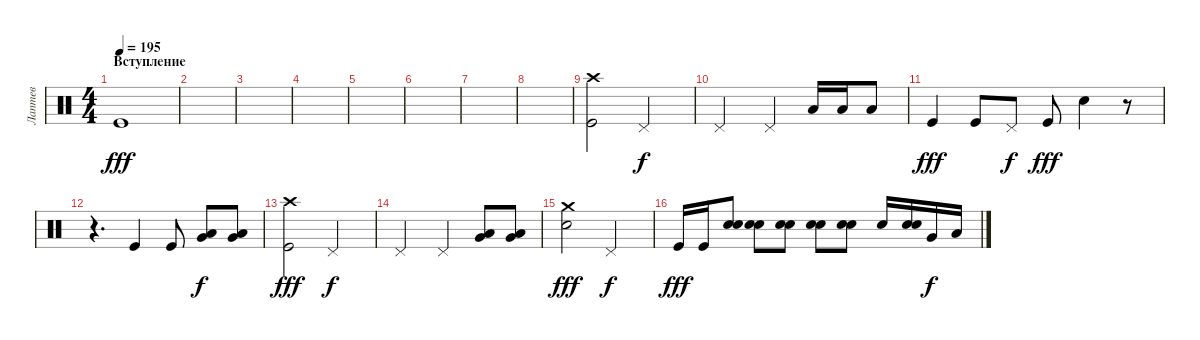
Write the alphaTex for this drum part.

\track ("Лаптев" "Лаптев") {instrument percussion}
\staff {score}
\articulation defaults
\ts (4 4)
\section ("" "Вступление")
\tempo 195
\clef neutral
\ks c "Kick (hit)".1{dy fff}
|
|
|
|
|
|
|
|
("Crash high (hit)" "Kick (hit)").2 "Pedal Hi-Hat (hit)".2{dy f} |
"Pedal Hi-Hat (hit)".2 "Pedal Hi-Hat (hit)".4 "Low Floor Tom (hit)".16 "Low Floor Tom (hit)".16 "Low Floor Tom (hit)".8 |
"Kick (hit)".4{dy fff} "Kick (hit)".8 "Pedal Hi-Hat (hit)".8{dy f} "Kick (hit)".8{dy fff} "Electric Snare (hit)".4 r.8 |
r.4{d} "Kick (hit)".4 "Kick (hit)".8 ("Very Low Tom (hit)" "Low Floor Tom (hit)").8{dy f} ("Very Low Tom (hit)" "Low Floor Tom (hit)").8 |
("Crash high (hit)" "Kick (hit)").2{dy fff} "Pedal Hi-Hat (hit)".2{dy f} |
"Pedal Hi-Hat (hit)".2 "Pedal Hi-Hat (hit)".4 ("Very Low Tom (hit)" "Low Floor Tom (hit)").8 ("Very Low Tom (hit)" "Low Floor Tom (hit)").8 |
("Crash medium (hit)" "Electric Snare (hit)").2{dy fff} "Pedal Hi-Hat (hit)".2{dy f} |
"Kick (hit)".16{dy fff} "Kick (hit)".16 ("Electric Snare (hit)" "Electric Snare (hit)").8 ("Electric Snare (hit)" "Electric Snare (hit)").8 ("Electric Snare (hit)" "Electric Snare (hit)").8 ("Electric Snare (hit)" "Electric Snare (hit)").8 ("Electric Snare (hit)" "Electric Snare (hit)").8 "Electric Snare (hit)".16 ("Electric Snare (hit)" "Electric Snare (hit)").16 "Very Low Tom (hit)".16{dy f} "Low Floor Tom (hit)".16
